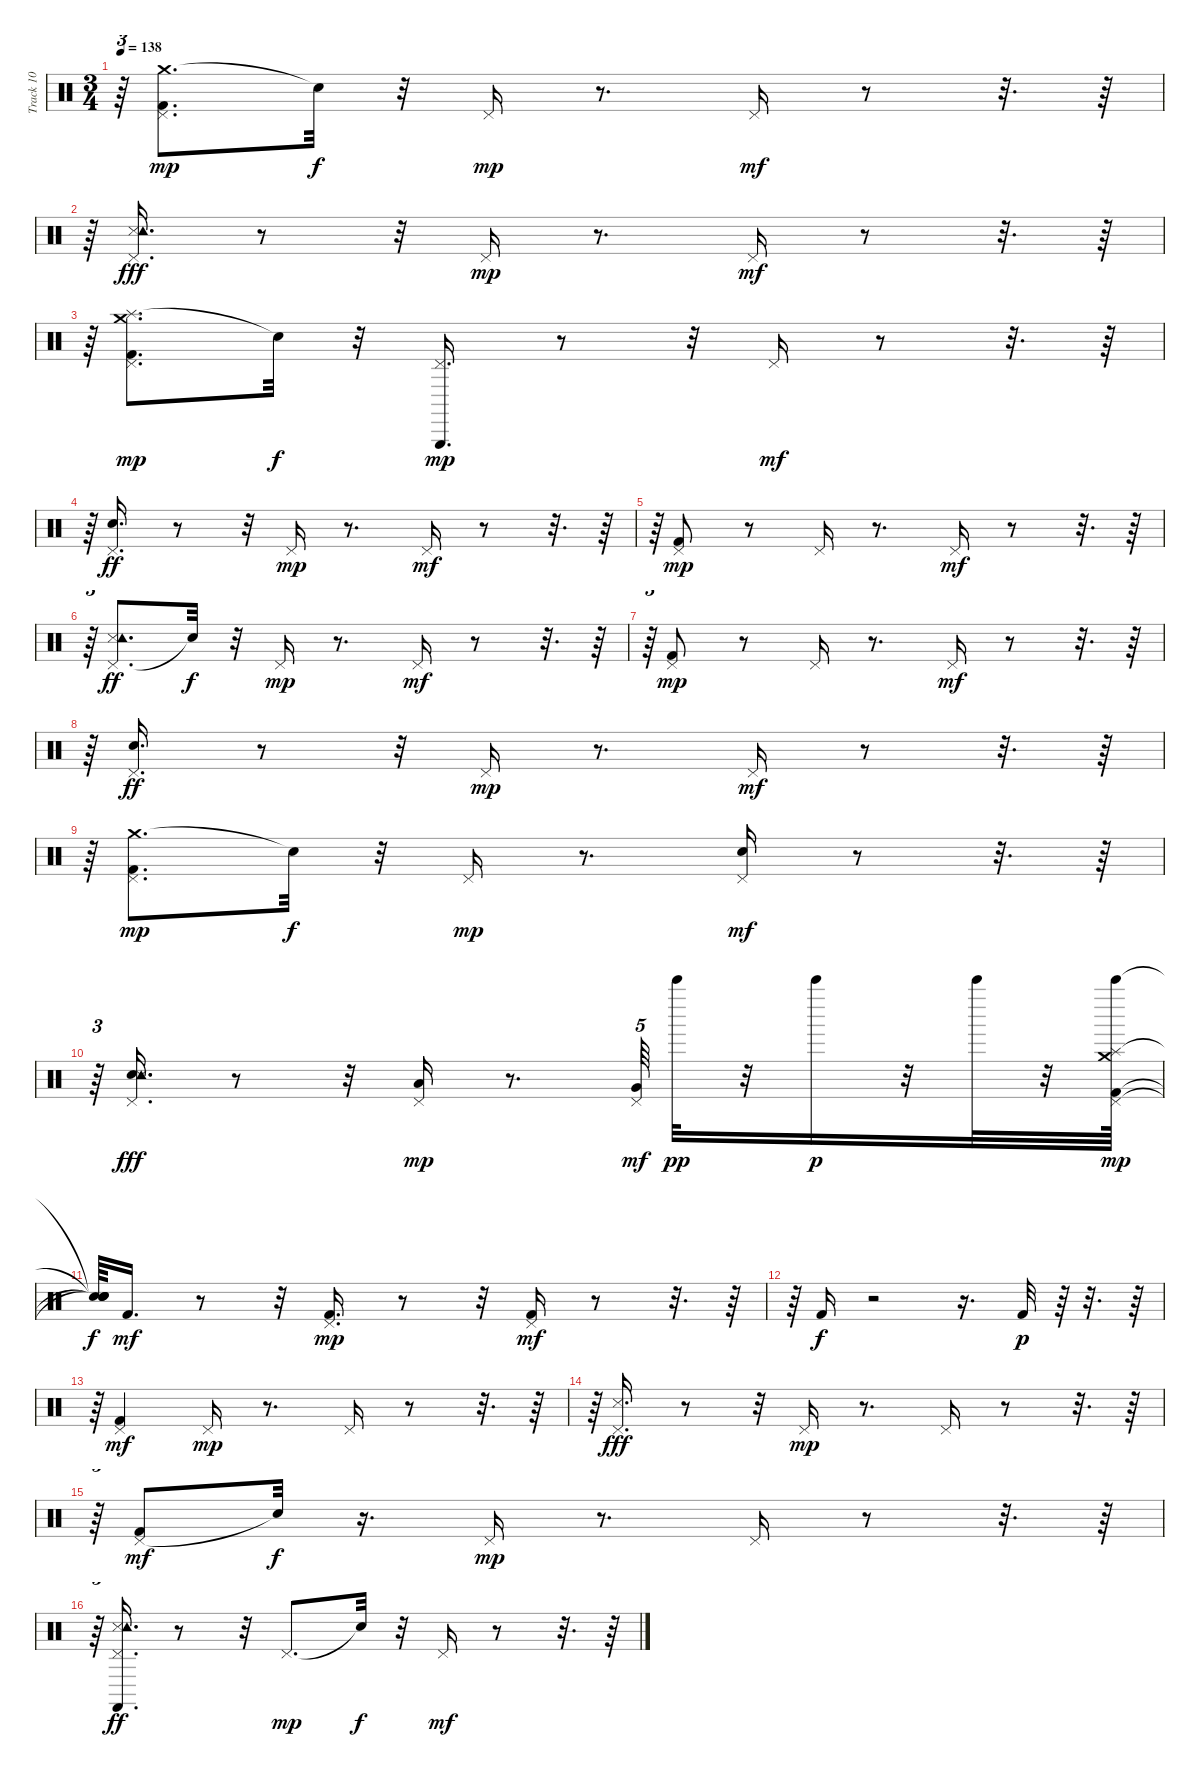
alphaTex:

\track ("Track 10" "Track 10") {instrument percussion}
\staff {score}
\articulation defaults
\ts (3 4)
\tempo 138
\clef neutral
\ks c
r.64{tu (3 2) dy mf} ("Crash medium (hit)" "Pedal Hi-Hat (hit)" "Kick (hit) 2").8{d dy mp} "Snare (hit)"{t}.32{dy f} r.32 "Pedal Hi-Hat (hit)".16{dy mp} r.8{d} "Pedal Hi-Hat (hit)".16{dy mf} r.8 r.32{d} r.64 |
r.64{tu (3 2)} ("Pedal Hi-Hat (hit)" "Snare (side stick) 3" "Tambourine (hit)").16{d dy fff} r.8 r.32 "Pedal Hi-Hat (hit)".16{dy mp} r.8{d} "Pedal Hi-Hat (hit)".16{dy mf} r.8 r.32{d} r.64 |
r.64{tu (3 2)} ("Splash (hit)" "Pedal Hi-Hat (hit)" "Kick (hit) 2" "Crash medium (hit)").8{d dy mp} "Snare (hit)"{t}.32{dy f} r.32 ("Pedal Hi-Hat (hit)" "Triangle (hit)").16{d dy mp} r.8 r.32 "Pedal Hi-Hat (hit)".16{dy mf} r.8 r.32{d} r.64 |
r.64{tu (3 2)} ("Pedal Hi-Hat (hit)" "Electric Snare (hit)").16{d dy ff} r.8 r.32 "Pedal Hi-Hat (hit)".16{dy mp} r.8{d} "Pedal Hi-Hat (hit)".16{dy mf} r.8 r.32{d} r.64 |
r.64{tu (3 2)} ("Pedal Hi-Hat (hit)" "Kick (hit) 2").8{dy mp} r.8 "Pedal Hi-Hat (hit)".16 r.8{d} "Pedal Hi-Hat (hit)".16{dy mf} r.8 r.32{d} r.64 |
r.64{tu (3 2)} ("Pedal Hi-Hat (hit)" "Snare (side stick) 3" "Tambourine (hit)").8{d dy ff} "Snare (hit)"{t}.32{dy f} r.32 "Pedal Hi-Hat (hit)".16{dy mp} r.8{d} "Pedal Hi-Hat (hit)".16{dy mf} r.8 r.32{d} r.64 |
r.64{tu (3 2)} ("Pedal Hi-Hat (hit)" "Kick (hit) 2").8{dy mp} r.8 "Pedal Hi-Hat (hit)".16 r.8{d} "Pedal Hi-Hat (hit)".16{dy mf} r.8 r.32{d} r.64 |
r.64{tu (3 2)} ("Pedal Hi-Hat (hit)" "Electric Snare (hit)").16{d dy ff} r.8 r.32 "Pedal Hi-Hat (hit)".16{dy mp} r.8{d} "Pedal Hi-Hat (hit)".16{dy mf} r.8 r.32{d} r.64 |
r.64{tu (3 2)} ("Crash medium (hit)" "Pedal Hi-Hat (hit)" "Kick (hit) 2").8{d dy mp} "Snare (hit)"{t}.32{dy f} r.32 "Pedal Hi-Hat (hit)".16{dy mp} r.8{d} ("Electric Snare (hit)" "Pedal Hi-Hat (hit)").16{dy mf} r.8 r.32{d} r.64 |
r.64{tu (3 2)} ("Electric Snare (hit)" "Pedal Hi-Hat (hit)" "Snare (side stick) 3" "Tambourine (hit)").16{d dy fff} r.8 r.32 ("Low Tom (hit)" "Pedal Hi-Hat (hit)").16{dy mp} r.8{d} ("Very Low Tom (hit)" "Pedal Hi-Hat (hit)").64{tu (5 4) dy mf} "Bell Tree (hit)".32{dy pp} r.32 "Bell Tree (hit)".16{dy p} r.32 "Bell Tree (hit)".32 r.32 ("Bell Tree (hit)" "Splash (hit)" "Pedal Hi-Hat (hit)" "Kick (hit) 2" "Crash medium (hit)").64{dy mp} |
("Snare (hit)"{t} "Snare (hit)"{t} "Snare (hit)"{t} "Snare (hit)"{t}).64{dy f} "Kick (hit) 2".16{d dy mf} r.8 r.32 ("Kick (hit) 2" "Pedal Hi-Hat (hit)").16{d dy mp} r.8 r.32 ("Kick (hit) 2" "Pedal Hi-Hat (hit)").16{dy mf} r.8 r.32{d} r.64 |
r.64 "Kick (hit) 2".16{dy f} r.2 r.16{d} "Kick (hit) 2".32{dy p} r.64 r.32{d} r.64 |
r.64{tu (3 2)} ("Kick (hit) 2" "Pedal Hi-Hat (hit)").4{dy mf} "Pedal Hi-Hat (hit)".16{dy mp} r.8{d} "Pedal Hi-Hat (hit)".16 r.8 r.32{d} r.64 |
r.64{tu (3 2)} ("Pedal Hi-Hat (hit)" "Snare (side stick) 3").16{d dy fff} r.8 r.32 "Pedal Hi-Hat (hit)".16{dy mp} r.8{d} "Pedal Hi-Hat (hit)".16 r.8 r.32{d} r.64 |
r.64{tu (3 2)} ("Pedal Hi-Hat (hit)" "Kick (hit) 2").8{dy mf} "Snare (hit)"{t}.32{dy f} r.16{d} "Pedal Hi-Hat (hit)".16{dy mp} r.8{d} "Pedal Hi-Hat (hit)".16 r.8 r.32{d} r.64 |
r.64{tu (3 2)} ("Pedal Hi-Hat (hit)" "Snare (side stick) 3" "Castanets (hit)" "Tambourine (hit)").16{d dy ff} r.8 r.32 "Pedal Hi-Hat (hit)".8{d dy mp} "Snare (hit)"{t}.32{dy f} r.32 "Pedal Hi-Hat (hit)".16{dy mf} r.8 r.32{d} r.64
